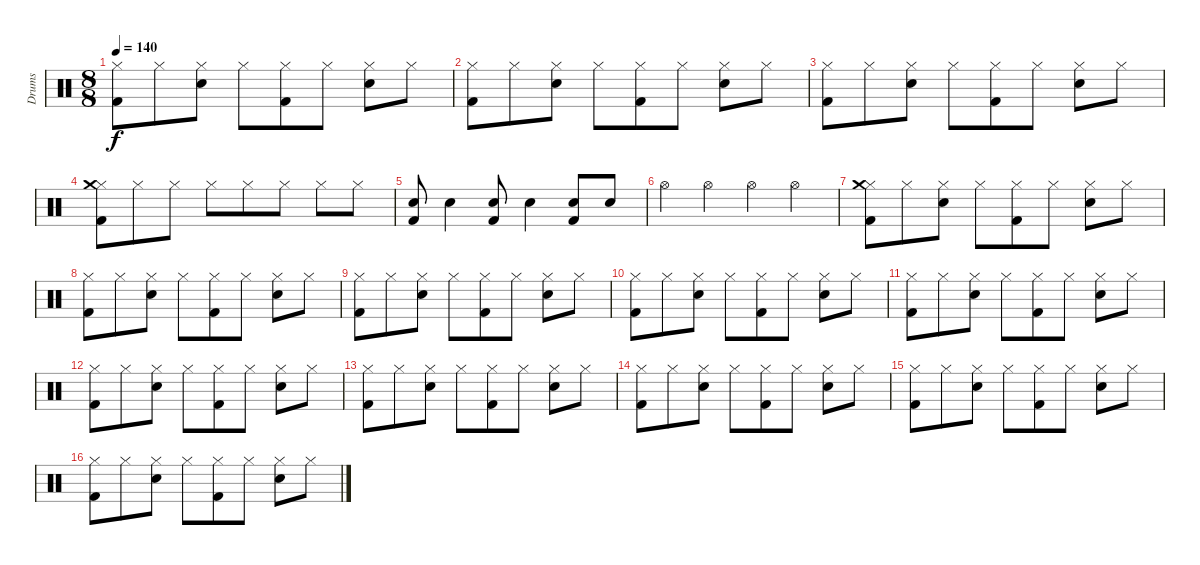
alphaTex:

\track ("Drums" "Drums") {instrument percussion}
\staff {score}
\articulation defaults
\ts (8 8)
\tempo 140
\clef neutral
\ks c
("Hi-Hat (closed)" "Kick (hit) 2").8{dy f} "Hi-Hat (closed)".8 ("Hi-Hat (closed)" "Snare (hit) 2").8 "Hi-Hat (closed)".8 ("Hi-Hat (closed)" "Kick (hit) 2").8 "Hi-Hat (closed)".8 ("Hi-Hat (closed)" "Snare (hit) 2").8 "Hi-Hat (closed)".8 |
("Hi-Hat (closed)" "Kick (hit) 2").8 "Hi-Hat (closed)".8 ("Hi-Hat (closed)" "Snare (hit) 2").8 "Hi-Hat (closed)".8 ("Hi-Hat (closed)" "Kick (hit) 2").8 "Hi-Hat (closed)".8 ("Hi-Hat (closed)" "Snare (hit) 2").8 "Hi-Hat (closed)".8 |
("Hi-Hat (closed)" "Kick (hit) 2").8 "Hi-Hat (closed)".8 ("Hi-Hat (closed)" "Snare (hit) 2").8 "Hi-Hat (closed)".8 ("Hi-Hat (closed)" "Kick (hit) 2").8 "Hi-Hat (closed)".8 ("Hi-Hat (closed)" "Snare (hit) 2").8 "Hi-Hat (closed)".8 |
("Hi-Hat (closed)" "Kick (hit) 2" "Crash medium (hit)").8 "Hi-Hat (closed)".8 "Hi-Hat (closed)".8 "Hi-Hat (closed)".8 "Hi-Hat (closed)".8 "Hi-Hat (closed)".8 "Hi-Hat (closed)".8 "Hi-Hat (closed)".8 |
("Kick (hit) 2" "Snare (hit) 2").8 "Snare (hit) 2".4 ("Kick (hit) 2" "Snare (hit) 2").8 "Snare (hit) 2".4 ("Kick (hit) 2" "Snare (hit) 2").8 "Snare (hit) 2".8 |
"Hi-Hat (open)".4 "Hi-Hat (open)".4 "Hi-Hat (open)".4 "Hi-Hat (open)".4 |
("Hi-Hat (closed)" "Kick (hit) 2" "Crash medium (hit)").8 "Hi-Hat (closed)".8 ("Hi-Hat (closed)" "Snare (hit) 2").8 "Hi-Hat (closed)".8 ("Hi-Hat (closed)" "Kick (hit) 2").8 "Hi-Hat (closed)".8 ("Hi-Hat (closed)" "Snare (hit) 2").8 "Hi-Hat (closed)".8 |
("Hi-Hat (closed)" "Kick (hit) 2").8 "Hi-Hat (closed)".8 ("Hi-Hat (closed)" "Snare (hit) 2").8 "Hi-Hat (closed)".8 ("Hi-Hat (closed)" "Kick (hit) 2").8 "Hi-Hat (closed)".8 ("Hi-Hat (closed)" "Snare (hit) 2").8 "Hi-Hat (closed)".8 |
("Hi-Hat (closed)" "Kick (hit) 2").8 "Hi-Hat (closed)".8 ("Hi-Hat (closed)" "Snare (hit) 2").8 "Hi-Hat (closed)".8 ("Hi-Hat (closed)" "Kick (hit) 2").8 "Hi-Hat (closed)".8 ("Hi-Hat (closed)" "Snare (hit) 2").8 "Hi-Hat (closed)".8 |
("Hi-Hat (closed)" "Kick (hit) 2").8 "Hi-Hat (closed)".8 ("Hi-Hat (closed)" "Snare (hit) 2").8 "Hi-Hat (closed)".8 ("Hi-Hat (closed)" "Kick (hit) 2").8 "Hi-Hat (closed)".8 ("Hi-Hat (closed)" "Snare (hit) 2").8 "Hi-Hat (closed)".8 |
("Hi-Hat (closed)" "Kick (hit) 2").8 "Hi-Hat (closed)".8 ("Hi-Hat (closed)" "Snare (hit) 2").8 "Hi-Hat (closed)".8 ("Hi-Hat (closed)" "Kick (hit) 2").8 "Hi-Hat (closed)".8 ("Hi-Hat (closed)" "Snare (hit) 2").8 "Hi-Hat (closed)".8 |
("Hi-Hat (closed)" "Kick (hit) 2").8 "Hi-Hat (closed)".8 ("Hi-Hat (closed)" "Snare (hit) 2").8 "Hi-Hat (closed)".8 ("Hi-Hat (closed)" "Kick (hit) 2").8 "Hi-Hat (closed)".8 ("Hi-Hat (closed)" "Snare (hit) 2").8 "Hi-Hat (closed)".8 |
("Hi-Hat (closed)" "Kick (hit) 2").8 "Hi-Hat (closed)".8 ("Hi-Hat (closed)" "Snare (hit) 2").8 "Hi-Hat (closed)".8 ("Hi-Hat (closed)" "Kick (hit) 2").8 "Hi-Hat (closed)".8 ("Hi-Hat (closed)" "Snare (hit) 2").8 "Hi-Hat (closed)".8 |
("Hi-Hat (closed)" "Kick (hit) 2").8 "Hi-Hat (closed)".8 ("Hi-Hat (closed)" "Snare (hit) 2").8 "Hi-Hat (closed)".8 ("Hi-Hat (closed)" "Kick (hit) 2").8 "Hi-Hat (closed)".8 ("Hi-Hat (closed)" "Snare (hit) 2").8 "Hi-Hat (closed)".8 |
("Hi-Hat (closed)" "Kick (hit) 2").8 "Hi-Hat (closed)".8 ("Hi-Hat (closed)" "Snare (hit) 2").8 "Hi-Hat (closed)".8 ("Hi-Hat (closed)" "Kick (hit) 2").8 "Hi-Hat (closed)".8 ("Hi-Hat (closed)" "Snare (hit) 2").8 "Hi-Hat (closed)".8 |
("Hi-Hat (closed)" "Kick (hit) 2").8 "Hi-Hat (closed)".8 ("Hi-Hat (closed)" "Snare (hit) 2").8 "Hi-Hat (closed)".8 ("Hi-Hat (closed)" "Kick (hit) 2").8 "Hi-Hat (closed)".8 ("Hi-Hat (closed)" "Snare (hit) 2").8 "Hi-Hat (closed)".8
